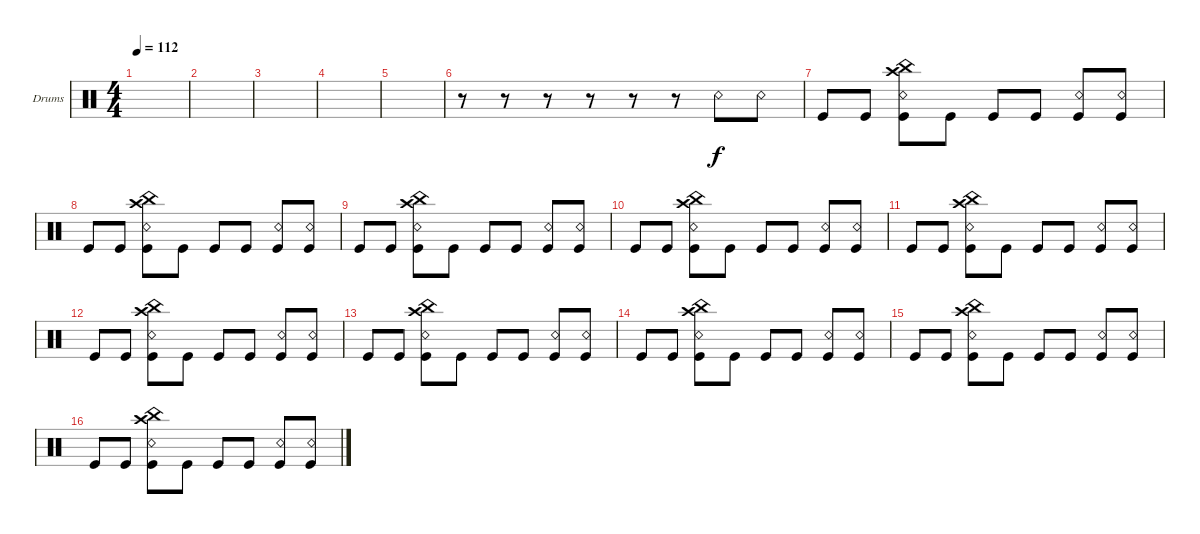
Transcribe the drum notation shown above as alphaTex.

\defaultSystemsLayout 4
\bracketExtendMode groupsimilarinstruments
\firstSystemTrackNameOrientation horizontal
\otherSystemsTrackNameOrientation horizontal
\track ("Drumkit" "Drums") {instrument percussion}
\staff {score}
\articulation defaults
\ts (4 4)
\tempo 112
\clef neutral
\scale
0.973518
\ks c
|
\scale
0.973518 |
\scale
1.07945 |
\scale
0.973518 |
\scale
0.973518 |
\scale
0.973518 r.8 r.8 r.8 r.8 r.8 r.8 "Snare (rim shot)".8{dy f} "Snare (rim shot)".8 |
\scale
1.07945 "Kick (hit)".8 "Kick (hit)".8 ("Kick (hit)" "Snare (rim shot)" "China (hit)" "Crash high (hit)").8 "Kick (hit)".8 "Kick (hit)".8 "Kick (hit)".8 ("Kick (hit)" "Snare (rim shot)").8 ("Kick (hit)" "Snare (rim shot)").8 |
\scale
0.973518 "Kick (hit)".8 "Kick (hit)".8 ("Kick (hit)" "Snare (rim shot)" "China (hit)" "Crash high (hit)").8 "Kick (hit)".8 "Kick (hit)".8 "Kick (hit)".8 ("Kick (hit)" "Snare (rim shot)").8 ("Kick (hit)" "Snare (rim shot)").8 |
\scale
0.973518 "Kick (hit)".8 "Kick (hit)".8 ("Kick (hit)" "Snare (rim shot)" "China (hit)" "Crash high (hit)").8 "Kick (hit)".8 "Kick (hit)".8 "Kick (hit)".8 ("Kick (hit)" "Snare (rim shot)").8 ("Kick (hit)" "Snare (rim shot)").8 |
\scale
0.973518 "Kick (hit)".8 "Kick (hit)".8 ("Kick (hit)" "Snare (rim shot)" "China (hit)" "Crash high (hit)").8 "Kick (hit)".8 "Kick (hit)".8 "Kick (hit)".8 ("Kick (hit)" "Snare (rim shot)").8 ("Kick (hit)" "Snare (rim shot)").8 |
\scale
1.07945 "Kick (hit)".8 "Kick (hit)".8 ("Kick (hit)" "Snare (rim shot)" "China (hit)" "Crash high (hit)").8 "Kick (hit)".8 "Kick (hit)".8 "Kick (hit)".8 ("Kick (hit)" "Snare (rim shot)").8 ("Kick (hit)" "Snare (rim shot)").8 |
\scale
0.973518 "Kick (hit)".8 "Kick (hit)".8 ("Kick (hit)" "Snare (rim shot)" "China (hit)" "Crash high (hit)").8 "Kick (hit)".8 "Kick (hit)".8 "Kick (hit)".8 ("Kick (hit)" "Snare (rim shot)").8 ("Kick (hit)" "Snare (rim shot)").8 |
\scale
0.973518 "Kick (hit)".8 "Kick (hit)".8 ("Kick (hit)" "Snare (rim shot)" "China (hit)" "Crash high (hit)").8 "Kick (hit)".8 "Kick (hit)".8 "Kick (hit)".8 ("Kick (hit)" "Snare (rim shot)").8 ("Kick (hit)" "Snare (rim shot)").8 |
\scale
0.973518 "Kick (hit)".8 "Kick (hit)".8 ("Kick (hit)" "Snare (rim shot)" "China (hit)" "Crash high (hit)").8 "Kick (hit)".8 "Kick (hit)".8 "Kick (hit)".8 ("Kick (hit)" "Snare (rim shot)").8 ("Kick (hit)" "Snare (rim shot)").8 |
\scale
1.07945 "Kick (hit)".8 "Kick (hit)".8 ("Kick (hit)" "Snare (rim shot)" "China (hit)" "Crash high (hit)").8 "Kick (hit)".8 "Kick (hit)".8 "Kick (hit)".8 ("Kick (hit)" "Snare (rim shot)").8 ("Kick (hit)" "Snare (rim shot)").8 |
\scale
0.973518 "Kick (hit)".8 "Kick (hit)".8 ("Kick (hit)" "Snare (rim shot)" "China (hit)" "Crash high (hit)").8 "Kick (hit)".8 "Kick (hit)".8 "Kick (hit)".8 ("Kick (hit)" "Snare (rim shot)").8 ("Kick (hit)" "Snare (rim shot)").8
